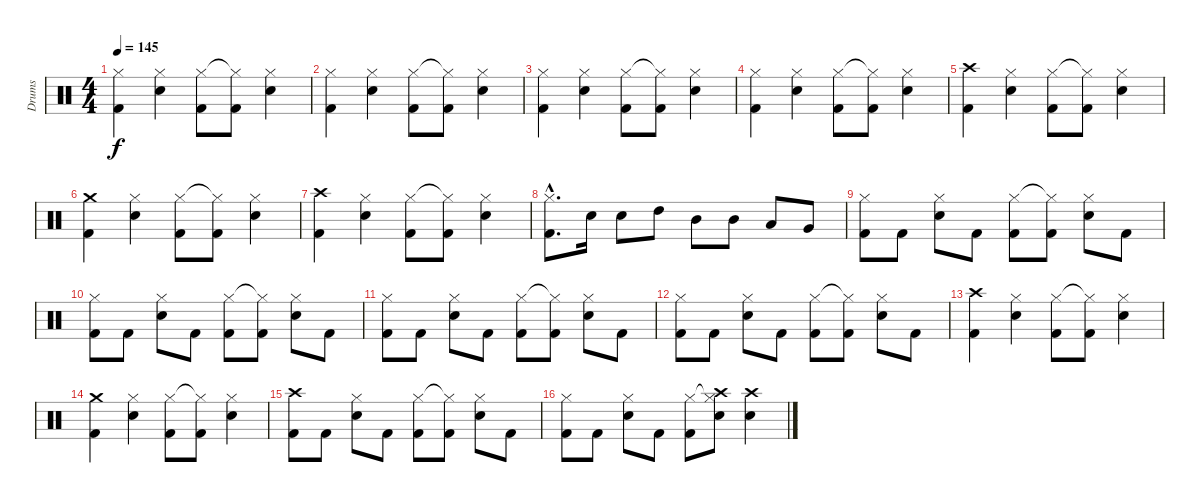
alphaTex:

\track ("Drums" "Drums") {instrument percussion}
\staff {score}
\articulation defaults
\ts (4 4)
\tempo 145
\clef neutral
\ks c
("Hi-Hat (closed)" "Kick (hit) 2").4{dy f} ("Hi-Hat (closed)" "Electric Snare (hit)").4 ("Hi-Hat (closed)" "Kick (hit) 2").8 ("Hi-Hat (closed)"{t} "Kick (hit) 2").8 ("Hi-Hat (closed)" "Electric Snare (hit)").4 |
("Hi-Hat (closed)" "Kick (hit) 2").4 ("Hi-Hat (closed)" "Electric Snare (hit)").4 ("Hi-Hat (closed)" "Kick (hit) 2").8 ("Hi-Hat (closed)"{t} "Kick (hit) 2").8 ("Hi-Hat (closed)" "Electric Snare (hit)").4 |
("Hi-Hat (closed)" "Kick (hit) 2").4 ("Hi-Hat (closed)" "Electric Snare (hit)").4 ("Hi-Hat (closed)" "Kick (hit) 2").8 ("Hi-Hat (closed)"{t} "Kick (hit) 2").8 ("Hi-Hat (closed)" "Electric Snare (hit)").4 |
("Hi-Hat (closed)" "Kick (hit) 2").4 ("Hi-Hat (closed)" "Electric Snare (hit)").4 ("Hi-Hat (closed)" "Kick (hit) 2").8 ("Hi-Hat (closed)"{t} "Kick (hit) 2").8 ("Hi-Hat (closed)" "Electric Snare (hit)").4 |
("Crash high (hit)" "Kick (hit) 2").4 ("Hi-Hat (closed)" "Electric Snare (hit)").4 ("Hi-Hat (closed)" "Kick (hit) 2").8 ("Hi-Hat (closed)"{t} "Kick (hit) 2").8 ("Hi-Hat (closed)" "Electric Snare (hit)").4 |
("Crash medium (hit)" "Kick (hit) 2").4 ("Hi-Hat (closed)" "Electric Snare (hit)").4 ("Hi-Hat (closed)" "Kick (hit) 2").8 ("Hi-Hat (closed)"{t} "Kick (hit) 2").8 ("Hi-Hat (closed)" "Electric Snare (hit)").4 |
("Crash high (hit)" "Kick (hit) 2").4 ("Hi-Hat (closed)" "Electric Snare (hit)").4 ("Hi-Hat (closed)" "Kick (hit) 2").8 ("Hi-Hat (closed)"{t} "Kick (hit) 2").8 ("Hi-Hat (closed)" "Electric Snare (hit)").4 |
("Hi-Hat (closed)"{hac} "Kick (hit) 2"{hac}).8{d} "Electric Snare (hit)".16 "Electric Snare (hit)".8 "High Tom (hit)".8 "Mid Tom (hit)".8 "Mid Tom (hit)".8 "Low Tom (hit)".8 "Very Low Tom (hit)".8 |
("Hi-Hat (closed)" "Kick (hit) 2").8 "Kick (hit) 2".8 ("Hi-Hat (closed)" "Electric Snare (hit)").8 "Kick (hit) 2".8 ("Hi-Hat (closed)" "Kick (hit) 2").8 ("Hi-Hat (closed)"{t} "Kick (hit) 2").8 ("Hi-Hat (closed)" "Electric Snare (hit)").8 "Kick (hit) 2".8 |
("Hi-Hat (closed)" "Kick (hit) 2").8 "Kick (hit) 2".8 ("Hi-Hat (closed)" "Electric Snare (hit)").8 "Kick (hit) 2".8 ("Hi-Hat (closed)" "Kick (hit) 2").8 ("Hi-Hat (closed)"{t} "Kick (hit) 2").8 ("Hi-Hat (closed)" "Electric Snare (hit)").8 "Kick (hit) 2".8 |
("Hi-Hat (closed)" "Kick (hit) 2").8 "Kick (hit) 2".8 ("Hi-Hat (closed)" "Electric Snare (hit)").8 "Kick (hit) 2".8 ("Hi-Hat (closed)" "Kick (hit) 2").8 ("Hi-Hat (closed)"{t} "Kick (hit) 2").8 ("Hi-Hat (closed)" "Electric Snare (hit)").8 "Kick (hit) 2".8 |
("Hi-Hat (closed)" "Kick (hit) 2").8 "Kick (hit) 2".8 ("Hi-Hat (closed)" "Electric Snare (hit)").8 "Kick (hit) 2".8 ("Hi-Hat (closed)" "Kick (hit) 2").8 ("Hi-Hat (closed)"{t} "Kick (hit) 2").8 ("Hi-Hat (closed)" "Electric Snare (hit)").8 "Kick (hit) 2".8 |
("Crash high (hit)" "Kick (hit) 2").4 ("Hi-Hat (closed)" "Electric Snare (hit)").4 ("Hi-Hat (closed)" "Kick (hit) 2").8 ("Hi-Hat (closed)"{t} "Kick (hit) 2").8 ("Hi-Hat (closed)" "Electric Snare (hit)").4 |
("Crash medium (hit)" "Kick (hit) 2").4 ("Hi-Hat (closed)" "Electric Snare (hit)").4 ("Hi-Hat (closed)" "Kick (hit) 2").8 ("Hi-Hat (closed)"{t} "Kick (hit) 2").8 ("Hi-Hat (closed)" "Electric Snare (hit)").4 |
("Crash high (hit)" "Kick (hit) 2").8 "Kick (hit) 2".8 ("Hi-Hat (closed)" "Electric Snare (hit)").8 "Kick (hit) 2".8 ("Hi-Hat (closed)" "Kick (hit) 2").8 ("Hi-Hat (closed)"{t} "Kick (hit) 2").8 ("Hi-Hat (closed)" "Electric Snare (hit)").8 "Kick (hit) 2".8 |
("Hi-Hat (closed)" "Kick (hit) 2").8 "Kick (hit) 2".8 ("Hi-Hat (closed)" "Electric Snare (hit)").8 "Kick (hit) 2".8 ("Hi-Hat (closed)" "Kick (hit) 2").8 ("Hi-Hat (closed)"{t} "Crash high (hit)" "Electric Snare (hit)").8 ("Crash high (hit)" "Electric Snare (hit)").4
